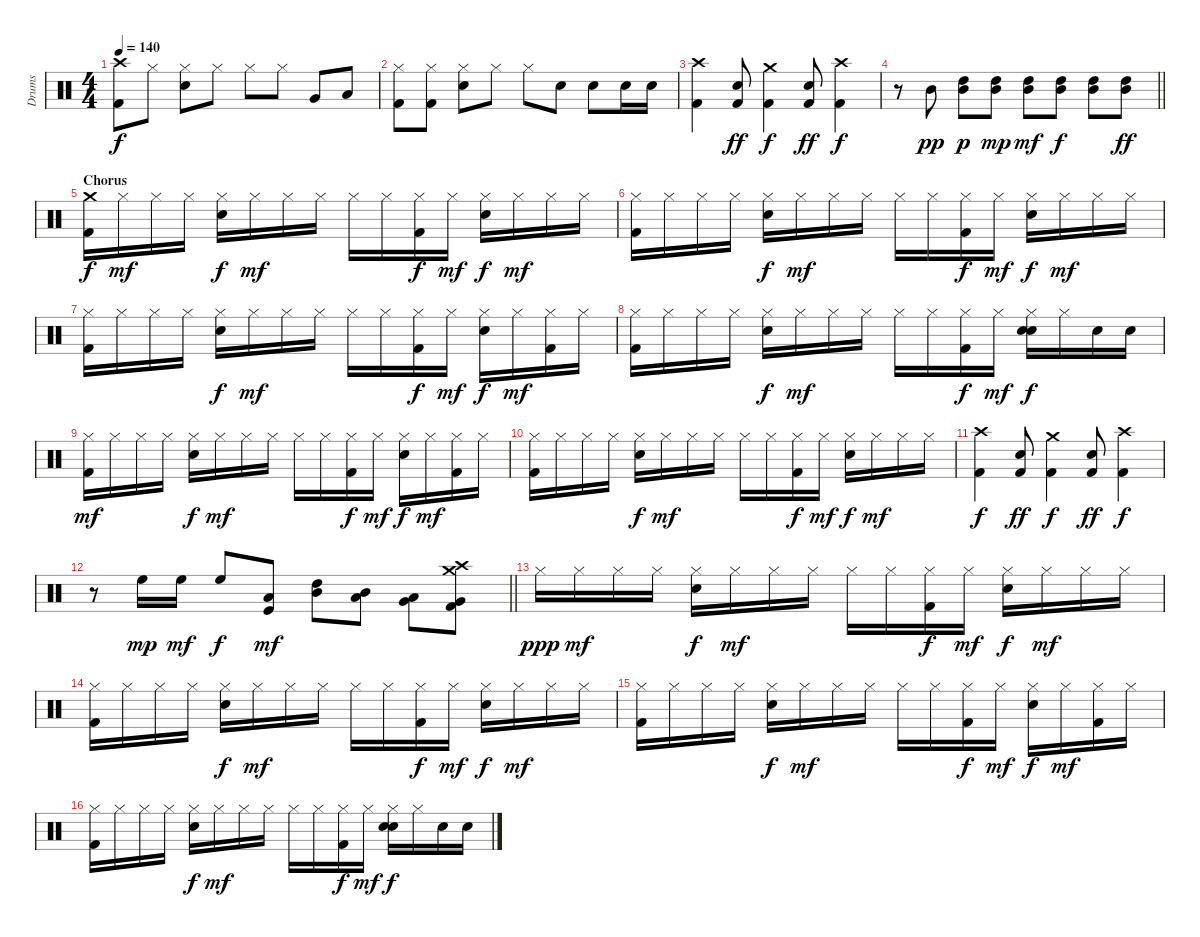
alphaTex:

\track ("Drums" "Drums") {instrument percussion}
\staff {score}
\articulation defaults
\ts (4 4)
\tempo 140
\clef neutral
\ks c
("Crash high (hit)" "Kick (hit) 2").8{dy f} "Hi-Hat (closed)".8 ("Hi-Hat (closed)" "Snare (hit) 2").8 "Hi-Hat (closed)".8 "Hi-Hat (closed)".8 "Hi-Hat (closed)".8 "Very Low Tom (hit)".8 "Low Floor Tom (hit)".8 |
("Hi-Hat (closed)" "Kick (hit) 2").8 ("Hi-Hat (closed)" "Kick (hit) 2").8 ("Hi-Hat (closed)" "Snare (hit) 2").8 "Hi-Hat (closed)".8 "Hi-Hat (closed)".8 "Snare (hit) 2".8 "Snare (hit) 2".8 "Snare (hit) 2".16 "Snare (hit) 2".16 |
("Crash high (hit)" "Kick (hit) 2").4 ("Snare (hit) 2" "Kick (hit) 2").8{dy ff} ("Crash medium (hit)" "Kick (hit) 2").4{dy f} ("Snare (hit) 2" "Kick (hit) 2").8{dy ff} ("Crash high (hit)" "Kick (hit) 2").4{dy f} |
\barLineRight lightlight
r.8 "Mid Tom (hit)".8{dy pp} ("High Tom (hit)" "Mid Tom (hit)").8{dy p} ("High Tom (hit)" "Mid Tom (hit)").8{dy mp} ("High Tom (hit)" "Mid Tom (hit)").8{dy mf} ("High Tom (hit)" "Mid Tom (hit)").8{dy f} ("High Tom (hit)" "Mid Tom (hit)").8 ("High Tom (hit)" "Mid Tom (hit)").8{dy ff} |
\section ("" "Chorus")
("Crash medium (hit)" "Kick (hit) 2").16{dy f} "Hi-Hat (closed)".16{dy mf} "Hi-Hat (closed)".16 "Hi-Hat (closed)".16 ("Hi-Hat (closed)" "Snare (hit) 2").16{dy f} "Hi-Hat (closed)".16{dy mf} "Hi-Hat (closed)".16 "Hi-Hat (closed)".16 "Hi-Hat (closed)".16 "Hi-Hat (closed)".16 ("Hi-Hat (closed)" "Kick (hit) 2").16{dy f} "Hi-Hat (closed)".16{dy mf} ("Hi-Hat (closed)" "Snare (hit) 2").16{dy f} "Hi-Hat (closed)".16{dy mf} "Hi-Hat (closed)".16 "Hi-Hat (closed)".16 |
("Hi-Hat (closed)" "Kick (hit) 2").16 "Hi-Hat (closed)".16 "Hi-Hat (closed)".16 "Hi-Hat (closed)".16 ("Hi-Hat (closed)" "Snare (hit) 2").16{dy f} "Hi-Hat (closed)".16{dy mf} "Hi-Hat (closed)".16 "Hi-Hat (closed)".16 "Hi-Hat (closed)".16 "Hi-Hat (closed)".16 ("Hi-Hat (closed)" "Kick (hit) 2").16{dy f} "Hi-Hat (closed)".16{dy mf} ("Hi-Hat (closed)" "Snare (hit) 2").16{dy f} "Hi-Hat (closed)".16{dy mf} "Hi-Hat (closed)".16 "Hi-Hat (closed)".16 |
("Hi-Hat (closed)" "Kick (hit) 2").16 "Hi-Hat (closed)".16 "Hi-Hat (closed)".16 "Hi-Hat (closed)".16 ("Hi-Hat (closed)" "Snare (hit) 2").16{dy f} "Hi-Hat (closed)".16{dy mf} "Hi-Hat (closed)".16 "Hi-Hat (closed)".16 "Hi-Hat (closed)".16 "Hi-Hat (closed)".16 ("Hi-Hat (closed)" "Kick (hit) 2").16{dy f} "Hi-Hat (closed)".16{dy mf} ("Hi-Hat (closed)" "Snare (hit) 2").16{dy f} "Hi-Hat (closed)".16{dy mf} ("Hi-Hat (closed)" "Kick (hit) 2").16 "Hi-Hat (closed)".16 |
("Hi-Hat (closed)" "Kick (hit) 2").16 "Hi-Hat (closed)".16 "Hi-Hat (closed)".16 "Hi-Hat (closed)".16 ("Hi-Hat (closed)" "Snare (hit) 2").16{dy f} "Hi-Hat (closed)".16{dy mf} "Hi-Hat (closed)".16 "Hi-Hat (closed)".16 "Hi-Hat (closed)".16 "Hi-Hat (closed)".16 ("Hi-Hat (closed)" "Kick (hit) 2").16{dy f} "Hi-Hat (closed)".16{dy mf} ("Snare (hit) 2" "Hi-Hat (closed)" "Snare (hit) 2").16{dy f} "Hi-Hat (closed)".16 "Snare (hit) 2".16 "Snare (hit) 2".16 |
("Hi-Hat (closed)" "Kick (hit) 2").16{dy mf} "Hi-Hat (closed)".16 "Hi-Hat (closed)".16 "Hi-Hat (closed)".16 ("Hi-Hat (closed)" "Snare (hit) 2").16{dy f} "Hi-Hat (closed)".16{dy mf} "Hi-Hat (closed)".16 "Hi-Hat (closed)".16 "Hi-Hat (closed)".16 "Hi-Hat (closed)".16 ("Hi-Hat (closed)" "Kick (hit) 2").16{dy f} "Hi-Hat (closed)".16{dy mf} ("Hi-Hat (closed)" "Snare (hit) 2").16{dy f} "Hi-Hat (closed)".16{dy mf} ("Hi-Hat (closed)" "Kick (hit) 2").16 "Hi-Hat (closed)".16 |
("Hi-Hat (closed)" "Kick (hit) 2").16 "Hi-Hat (closed)".16 "Hi-Hat (closed)".16 "Hi-Hat (closed)".16 ("Hi-Hat (closed)" "Snare (hit) 2").16{dy f} "Hi-Hat (closed)".16{dy mf} "Hi-Hat (closed)".16 "Hi-Hat (closed)".16 "Hi-Hat (closed)".16 "Hi-Hat (closed)".16 ("Hi-Hat (closed)" "Kick (hit) 2").16{dy f} "Hi-Hat (closed)".16{dy mf} ("Hi-Hat (closed)" "Snare (hit) 2").16{dy f} "Hi-Hat (closed)".16{dy mf} "Hi-Hat (closed)".16 "Hi-Hat (closed)".16 |
("Crash high (hit)" "Kick (hit) 2").4{dy f} ("Snare (hit) 2" "Kick (hit) 2").8{dy ff} ("Crash medium (hit)" "Kick (hit) 2").4{dy f} ("Snare (hit) 2" "Kick (hit) 2").8{dy ff} ("Crash high (hit)" "Kick (hit) 2").4{dy f} |
\barLineRight lightlight
r.8 "High Floor Tom (hit)".16{dy mp} "High Floor Tom (hit)".16{dy mf} "High Floor Tom (hit)".8{dy f} ("Low Tom (hit)" "Kick (hit)").8{dy mf} ("High Tom (hit)" "Mid Tom (hit)").8 ("Mid Tom (hit)" "Low Tom (hit)").8 ("Low Tom (hit)" "Very Low Tom (hit)").8 ("Crash high (hit)" "Crash medium (hit)" "Very Low Tom (hit)" "Kick (hit) 2").8 |
"Hi-Hat (closed)".16{dy ppp} "Hi-Hat (closed)".16{dy mf} "Hi-Hat (closed)".16 "Hi-Hat (closed)".16 ("Hi-Hat (closed)" "Snare (hit) 2").16{dy f} "Hi-Hat (closed)".16{dy mf} "Hi-Hat (closed)".16 "Hi-Hat (closed)".16 "Hi-Hat (closed)".16 "Hi-Hat (closed)".16 ("Hi-Hat (closed)" "Kick (hit) 2").16{dy f} "Hi-Hat (closed)".16{dy mf} ("Hi-Hat (closed)" "Snare (hit) 2").16{dy f} "Hi-Hat (closed)".16{dy mf} "Hi-Hat (closed)".16 "Hi-Hat (closed)".16 |
("Hi-Hat (closed)" "Kick (hit) 2").16 "Hi-Hat (closed)".16 "Hi-Hat (closed)".16 "Hi-Hat (closed)".16 ("Hi-Hat (closed)" "Snare (hit) 2").16{dy f} "Hi-Hat (closed)".16{dy mf} "Hi-Hat (closed)".16 "Hi-Hat (closed)".16 "Hi-Hat (closed)".16 "Hi-Hat (closed)".16 ("Hi-Hat (closed)" "Kick (hit) 2").16{dy f} "Hi-Hat (closed)".16{dy mf} ("Hi-Hat (closed)" "Snare (hit) 2").16{dy f} "Hi-Hat (closed)".16{dy mf} "Hi-Hat (closed)".16 "Hi-Hat (closed)".16 |
("Hi-Hat (closed)" "Kick (hit) 2").16 "Hi-Hat (closed)".16 "Hi-Hat (closed)".16 "Hi-Hat (closed)".16 ("Hi-Hat (closed)" "Snare (hit) 2").16{dy f} "Hi-Hat (closed)".16{dy mf} "Hi-Hat (closed)".16 "Hi-Hat (closed)".16 "Hi-Hat (closed)".16 "Hi-Hat (closed)".16 ("Hi-Hat (closed)" "Kick (hit) 2").16{dy f} "Hi-Hat (closed)".16{dy mf} ("Hi-Hat (closed)" "Snare (hit) 2").16{dy f} "Hi-Hat (closed)".16{dy mf} ("Hi-Hat (closed)" "Kick (hit) 2").16 "Hi-Hat (closed)".16 |
("Hi-Hat (closed)" "Kick (hit) 2").16 "Hi-Hat (closed)".16 "Hi-Hat (closed)".16 "Hi-Hat (closed)".16 ("Hi-Hat (closed)" "Snare (hit) 2").16{dy f} "Hi-Hat (closed)".16{dy mf} "Hi-Hat (closed)".16 "Hi-Hat (closed)".16 "Hi-Hat (closed)".16 "Hi-Hat (closed)".16 ("Hi-Hat (closed)" "Kick (hit) 2").16{dy f} "Hi-Hat (closed)".16{dy mf} ("Snare (hit) 2" "Hi-Hat (closed)" "Snare (hit) 2").16{dy f} "Hi-Hat (closed)".16 "Snare (hit) 2".16 "Snare (hit) 2".16
